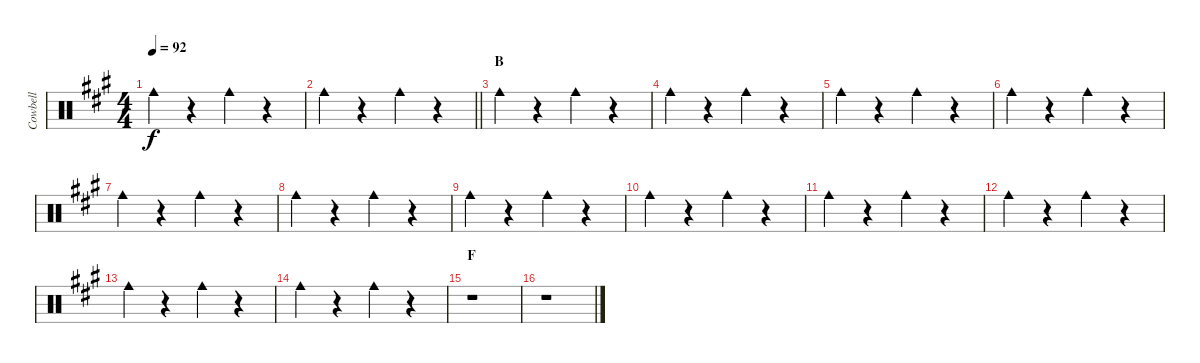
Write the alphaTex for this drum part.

\track ("Cowbell" "Cowbell") {instrument percussion}
\staff {score}
\articulation defaults
\ts (4 4)
\tempo 92
\clef neutral
\ks a "Cowbell medium (hit)".4{dy f}
r.4 "Cowbell medium (hit)".4 r.4 |
\barLineRight lightlight "Cowbell medium (hit)".4
r.4 "Cowbell medium (hit)".4 r.4 |
\section ("" "B")
"Cowbell medium (hit)".4 r.4 "Cowbell medium (hit)".4 r.4 |
"Cowbell medium (hit)".4 r.4 "Cowbell medium (hit)".4 r.4 |
"Cowbell medium (hit)".4 r.4 "Cowbell medium (hit)".4 r.4 |
"Cowbell medium (hit)".4 r.4 "Cowbell medium (hit)".4 r.4 |
"Cowbell medium (hit)".4 r.4 "Cowbell medium (hit)".4 r.4 |
"Cowbell medium (hit)".4 r.4 "Cowbell medium (hit)".4 r.4 |
"Cowbell medium (hit)".4 r.4 "Cowbell medium (hit)".4 r.4 |
"Cowbell medium (hit)".4 r.4 "Cowbell medium (hit)".4 r.4 |
"Cowbell medium (hit)".4 r.4 "Cowbell medium (hit)".4 r.4 |
"Cowbell medium (hit)".4 r.4 "Cowbell medium (hit)".4 r.4 |
"Cowbell medium (hit)".4 r.4 "Cowbell medium (hit)".4 r.4 |
"Cowbell medium (hit)".4 r.4 "Cowbell medium (hit)".4 r.4 |
\section ("" "F")
r.1 |
r.1
